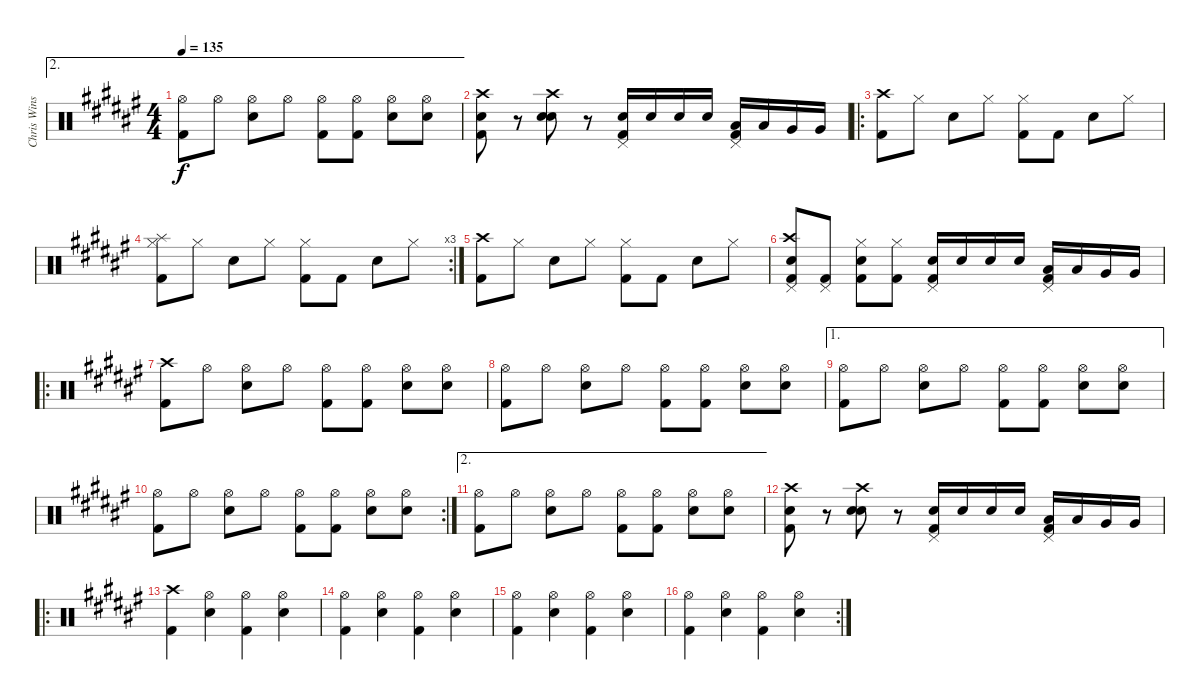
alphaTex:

\track ("Chris Winship (Drums)" "Chris Wins") {instrument percussion}
\staff {score}
\articulation defaults
\ae 2
\ts (4 4)
\tempo 135
\clef neutral
\ks f#
("Hi-Hat (open)" "Kick (hit) 2").8{dy f} "Hi-Hat (open)".8 ("Hi-Hat (open)" "Electric Snare (hit)").8 "Hi-Hat (open)".8 ("Hi-Hat (open)" "Kick (hit) 2").8 ("Hi-Hat (open)" "Kick (hit) 2").8 ("Hi-Hat (open)" "Electric Snare (hit)").8 ("Hi-Hat (open)" "Electric Snare (hit)").8 |
("Crash high (hit)" "Electric Snare (hit)" "Kick (hit) 2").8 r.8 ("Crash high (hit)" "Electric Snare (hit)" "Electric Snare (hit)").8 r.8 ("Pedal Hi-Hat (hit)" "Electric Snare (hit)" "Kick (hit) 2").16 "Electric Snare (hit)".16 "Electric Snare (hit)".16 "Electric Snare (hit)".16 ("Pedal Hi-Hat (hit)" "Low Tom (hit)" "Kick (hit) 2").16 "Low Tom (hit)".16 "Very Low Tom (hit)".16 "Very Low Tom (hit)".16 |
\ro
("Crash high (hit)" "Kick (hit) 2").8 "Hi-Hat (closed)".8 "Electric Snare (hit)".8 "Hi-Hat (closed)".8 ("Hi-Hat (closed)" "Kick (hit) 2").8 "Kick (hit) 2".8 "Electric Snare (hit)".8 "Hi-Hat (closed)".8 |
\rc 3
("Hi-Hat (closed)" "Kick (hit) 2" "Splash (hit)").8 "Hi-Hat (closed)".8 "Electric Snare (hit)".8 "Hi-Hat (closed)".8 ("Hi-Hat (closed)" "Kick (hit) 2").8 "Kick (hit) 2".8 "Electric Snare (hit)".8 "Hi-Hat (closed)".8 |
("Crash high (hit)" "Kick (hit) 2").8 "Hi-Hat (closed)".8 "Electric Snare (hit)".8 "Hi-Hat (closed)".8 ("Hi-Hat (closed)" "Kick (hit) 2").8 "Kick (hit) 2".8 "Electric Snare (hit)".8 "Hi-Hat (closed)".8 |
("Pedal Hi-Hat (hit)" "Electric Snare (hit)" "Kick (hit) 2" "Crash high (hit)").8 ("Pedal Hi-Hat (hit)" "Kick (hit) 2").8 ("Hi-Hat (closed)" "Electric Snare (hit)" "Kick (hit) 2").8 ("Hi-Hat (closed)" "Kick (hit) 2").8 ("Pedal Hi-Hat (hit)" "Electric Snare (hit)" "Kick (hit) 2").16 "Electric Snare (hit)".16 "Electric Snare (hit)".16 "Electric Snare (hit)".16 ("Pedal Hi-Hat (hit)" "Low Floor Tom (hit)" "Kick (hit) 2").16 "Low Floor Tom (hit)".16 "Very Low Tom (hit)".16 "Very Low Tom (hit)".16 |
\ro
("Crash high (hit)" "Kick (hit) 2").8 "Hi-Hat (open)".8 ("Hi-Hat (open)" "Electric Snare (hit)").8 "Hi-Hat (open)".8 ("Hi-Hat (open)" "Kick (hit) 2").8 ("Hi-Hat (open)" "Kick (hit) 2").8 ("Hi-Hat (open)" "Electric Snare (hit)").8 ("Hi-Hat (open)" "Electric Snare (hit)").8 |
("Hi-Hat (open)" "Kick (hit) 2").8 "Hi-Hat (open)".8 ("Hi-Hat (open)" "Electric Snare (hit)").8 "Hi-Hat (open)".8 ("Hi-Hat (open)" "Kick (hit) 2").8 ("Hi-Hat (open)" "Kick (hit) 2").8 ("Hi-Hat (open)" "Electric Snare (hit)").8 ("Hi-Hat (open)" "Electric Snare (hit)").8 |
\ae 1
("Hi-Hat (open)" "Kick (hit) 2").8 "Hi-Hat (open)".8 ("Hi-Hat (open)" "Electric Snare (hit)").8 "Hi-Hat (open)".8 ("Hi-Hat (open)" "Kick (hit) 2").8 ("Hi-Hat (open)" "Kick (hit) 2").8 ("Hi-Hat (open)" "Electric Snare (hit)").8 ("Hi-Hat (open)" "Electric Snare (hit)").8 |
\rc 2
("Hi-Hat (open)" "Kick (hit) 2").8 "Hi-Hat (open)".8 ("Hi-Hat (open)" "Electric Snare (hit)").8 "Hi-Hat (open)".8 ("Hi-Hat (open)" "Kick (hit) 2").8 ("Hi-Hat (open)" "Kick (hit) 2").8 ("Hi-Hat (open)" "Electric Snare (hit)").8 ("Hi-Hat (open)" "Electric Snare (hit)").8 |
\ae 2
("Hi-Hat (open)" "Kick (hit) 2").8 "Hi-Hat (open)".8 ("Hi-Hat (open)" "Electric Snare (hit)").8 "Hi-Hat (open)".8 ("Hi-Hat (open)" "Kick (hit) 2").8 ("Hi-Hat (open)" "Kick (hit) 2").8 ("Hi-Hat (open)" "Electric Snare (hit)").8 ("Hi-Hat (open)" "Electric Snare (hit)").8 |
("Crash high (hit)" "Electric Snare (hit)" "Kick (hit) 2").8 r.8 ("Crash high (hit)" "Electric Snare (hit)" "Electric Snare (hit)").8 r.8 ("Pedal Hi-Hat (hit)" "Electric Snare (hit)" "Kick (hit) 2").16 "Electric Snare (hit)".16 "Electric Snare (hit)".16 "Electric Snare (hit)".16 ("Pedal Hi-Hat (hit)" "Low Tom (hit)" "Kick (hit) 2").16 "Low Tom (hit)".16 "Very Low Tom (hit)".16 "Very Low Tom (hit)".16 |
\ro
("Crash high (hit)" "Kick (hit) 2").4 ("Hi-Hat (open)" "Electric Snare (hit)").4 ("Hi-Hat (open)" "Kick (hit) 2").4 ("Hi-Hat (open)" "Electric Snare (hit)").4 |
("Hi-Hat (open)" "Kick (hit) 2").4 ("Hi-Hat (open)" "Electric Snare (hit)").4 ("Hi-Hat (open)" "Kick (hit) 2").4 ("Hi-Hat (open)" "Electric Snare (hit)").4 |
("Hi-Hat (open)" "Kick (hit) 2").4 ("Hi-Hat (open)" "Electric Snare (hit)").4 ("Hi-Hat (open)" "Kick (hit) 2").4 ("Hi-Hat (open)" "Electric Snare (hit)").4 |
\rc 2
("Hi-Hat (open)" "Kick (hit) 2").4 ("Hi-Hat (open)" "Electric Snare (hit)").4 ("Hi-Hat (open)" "Kick (hit) 2").4 ("Hi-Hat (open)" "Electric Snare (hit)").4
